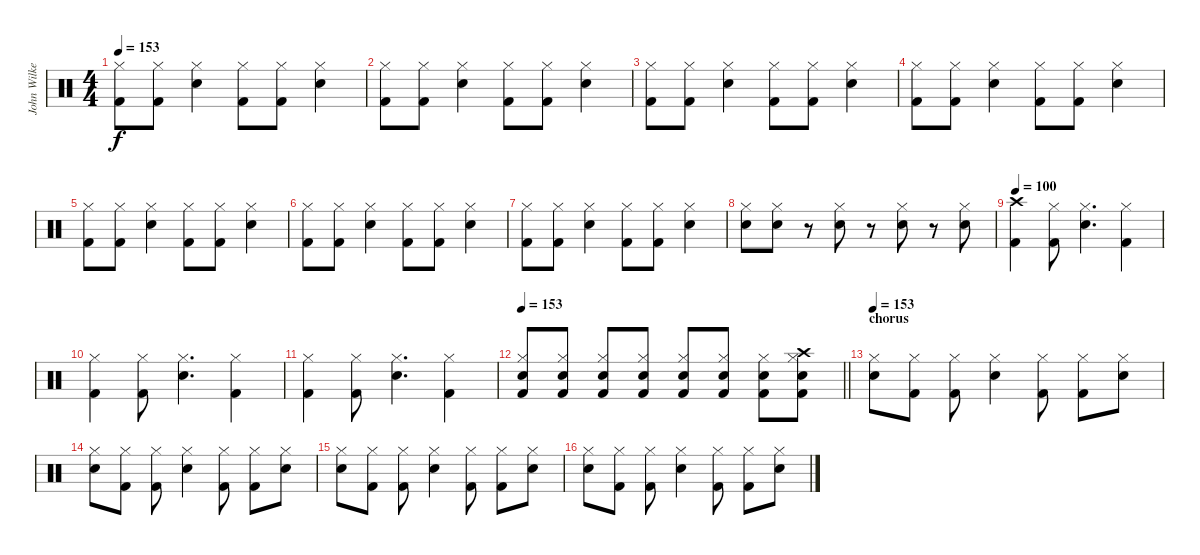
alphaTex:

\track ("John Wilkes (Percussion)" "John Wilke") {instrument percussion}
\staff {score}
\articulation defaults
\ts (4 4)
\tempo 153
\clef neutral
\ks c
("Kick (hit) 2" "Hi-Hat (closed)").8{dy f} ("Kick (hit) 2" "Hi-Hat (closed)").8 ("Snare (hit) 2" "Hi-Hat (closed)").4 ("Kick (hit) 2" "Hi-Hat (closed)").8 ("Kick (hit) 2" "Hi-Hat (closed)").8 ("Snare (hit) 2" "Hi-Hat (closed)").4 |
("Kick (hit) 2" "Hi-Hat (closed)").8 ("Kick (hit) 2" "Hi-Hat (closed)").8 ("Snare (hit) 2" "Hi-Hat (closed)").4 ("Kick (hit) 2" "Hi-Hat (closed)").8 ("Kick (hit) 2" "Hi-Hat (closed)").8 ("Snare (hit) 2" "Hi-Hat (closed)").4 |
("Kick (hit) 2" "Hi-Hat (closed)").8 ("Kick (hit) 2" "Hi-Hat (closed)").8 ("Snare (hit) 2" "Hi-Hat (closed)").4 ("Kick (hit) 2" "Hi-Hat (closed)").8 ("Kick (hit) 2" "Hi-Hat (closed)").8 ("Snare (hit) 2" "Hi-Hat (closed)").4 |
("Kick (hit) 2" "Hi-Hat (closed)").8 ("Kick (hit) 2" "Hi-Hat (closed)").8 ("Snare (hit) 2" "Hi-Hat (closed)").4 ("Kick (hit) 2" "Hi-Hat (closed)").8 ("Kick (hit) 2" "Hi-Hat (closed)").8 ("Snare (hit) 2" "Hi-Hat (closed)").4 |
("Kick (hit) 2" "Hi-Hat (closed)").8 ("Kick (hit) 2" "Hi-Hat (closed)").8 ("Snare (hit) 2" "Hi-Hat (closed)").4 ("Kick (hit) 2" "Hi-Hat (closed)").8 ("Kick (hit) 2" "Hi-Hat (closed)").8 ("Snare (hit) 2" "Hi-Hat (closed)").4 |
("Kick (hit) 2" "Hi-Hat (closed)").8 ("Kick (hit) 2" "Hi-Hat (closed)").8 ("Snare (hit) 2" "Hi-Hat (closed)").4 ("Kick (hit) 2" "Hi-Hat (closed)").8 ("Kick (hit) 2" "Hi-Hat (closed)").8 ("Snare (hit) 2" "Hi-Hat (closed)").4 |
("Kick (hit) 2" "Hi-Hat (closed)").8 ("Kick (hit) 2" "Hi-Hat (closed)").8 ("Snare (hit) 2" "Hi-Hat (closed)").4 ("Kick (hit) 2" "Hi-Hat (closed)").8 ("Kick (hit) 2" "Hi-Hat (closed)").8 ("Snare (hit) 2" "Hi-Hat (closed)").4 |
("Snare (hit) 2" "Hi-Hat (closed)").8 ("Snare (hit) 2" "Hi-Hat (closed)").8 r.8 ("Snare (hit) 2" "Hi-Hat (closed)").8 r.8 ("Snare (hit) 2" "Hi-Hat (closed)").8 r.8 ("Snare (hit) 2" "Hi-Hat (closed)").8 |
\tempo 100
("Kick (hit) 2" "Crash high (hit)").4 ("Kick (hit) 2" "Hi-Hat (closed)").8 ("Snare (hit) 2" "Hi-Hat (closed)").4{d} ("Kick (hit) 2" "Hi-Hat (closed)").4 |
("Kick (hit) 2" "Hi-Hat (closed)").4 ("Kick (hit) 2" "Hi-Hat (closed)").8 ("Snare (hit) 2" "Hi-Hat (closed)").4{d} ("Kick (hit) 2" "Hi-Hat (closed)").4 |
("Kick (hit) 2" "Hi-Hat (closed)").4 ("Kick (hit) 2" "Hi-Hat (closed)").8 ("Snare (hit) 2" "Hi-Hat (closed)").4{d} ("Kick (hit) 2" "Hi-Hat (closed)").4 |
\tempo 153
\barLineRight lightlight
("Snare (hit) 2" "Hi-Hat (closed)" "Kick (hit) 2").8 ("Snare (hit) 2" "Hi-Hat (closed)" "Kick (hit) 2").8 ("Snare (hit) 2" "Hi-Hat (closed)" "Kick (hit) 2").8 ("Snare (hit) 2" "Hi-Hat (closed)" "Kick (hit) 2").8 ("Snare (hit) 2" "Hi-Hat (closed)" "Kick (hit) 2").8 ("Snare (hit) 2" "Hi-Hat (closed)" "Kick (hit) 2").8 ("Snare (hit) 2" "Hi-Hat (closed)" "Kick (hit) 2").8 ("Snare (hit) 2" "Crash high (hit)" "Hi-Hat (closed)" "Kick (hit) 2").8 |
\section ("" "chorus")
\tempo 153
("Snare (hit) 2" "Hi-Hat (closed)").8 ("Kick (hit) 2" "Hi-Hat (closed)").8 ("Kick (hit) 2" "Hi-Hat (closed)").8 ("Snare (hit) 2" "Hi-Hat (closed)").4 ("Kick (hit) 2" "Hi-Hat (closed)").8 ("Kick (hit) 2" "Hi-Hat (closed)").8 ("Snare (hit) 2" "Hi-Hat (closed)").8 |
("Snare (hit) 2" "Hi-Hat (closed)").8 ("Kick (hit) 2" "Hi-Hat (closed)").8 ("Kick (hit) 2" "Hi-Hat (closed)").8 ("Snare (hit) 2" "Hi-Hat (closed)").4 ("Kick (hit) 2" "Hi-Hat (closed)").8 ("Kick (hit) 2" "Hi-Hat (closed)").8 ("Snare (hit) 2" "Hi-Hat (closed)").8 |
("Snare (hit) 2" "Hi-Hat (closed)").8 ("Kick (hit) 2" "Hi-Hat (closed)").8 ("Kick (hit) 2" "Hi-Hat (closed)").8 ("Snare (hit) 2" "Hi-Hat (closed)").4 ("Kick (hit) 2" "Hi-Hat (closed)").8 ("Kick (hit) 2" "Hi-Hat (closed)").8 ("Snare (hit) 2" "Hi-Hat (closed)").8 |
("Snare (hit) 2" "Hi-Hat (closed)").8 ("Kick (hit) 2" "Hi-Hat (closed)").8 ("Kick (hit) 2" "Hi-Hat (closed)").8 ("Snare (hit) 2" "Hi-Hat (closed)").4 ("Kick (hit) 2" "Hi-Hat (closed)").8 ("Kick (hit) 2" "Hi-Hat (closed)").8 ("Snare (hit) 2" "Hi-Hat (closed)").8
